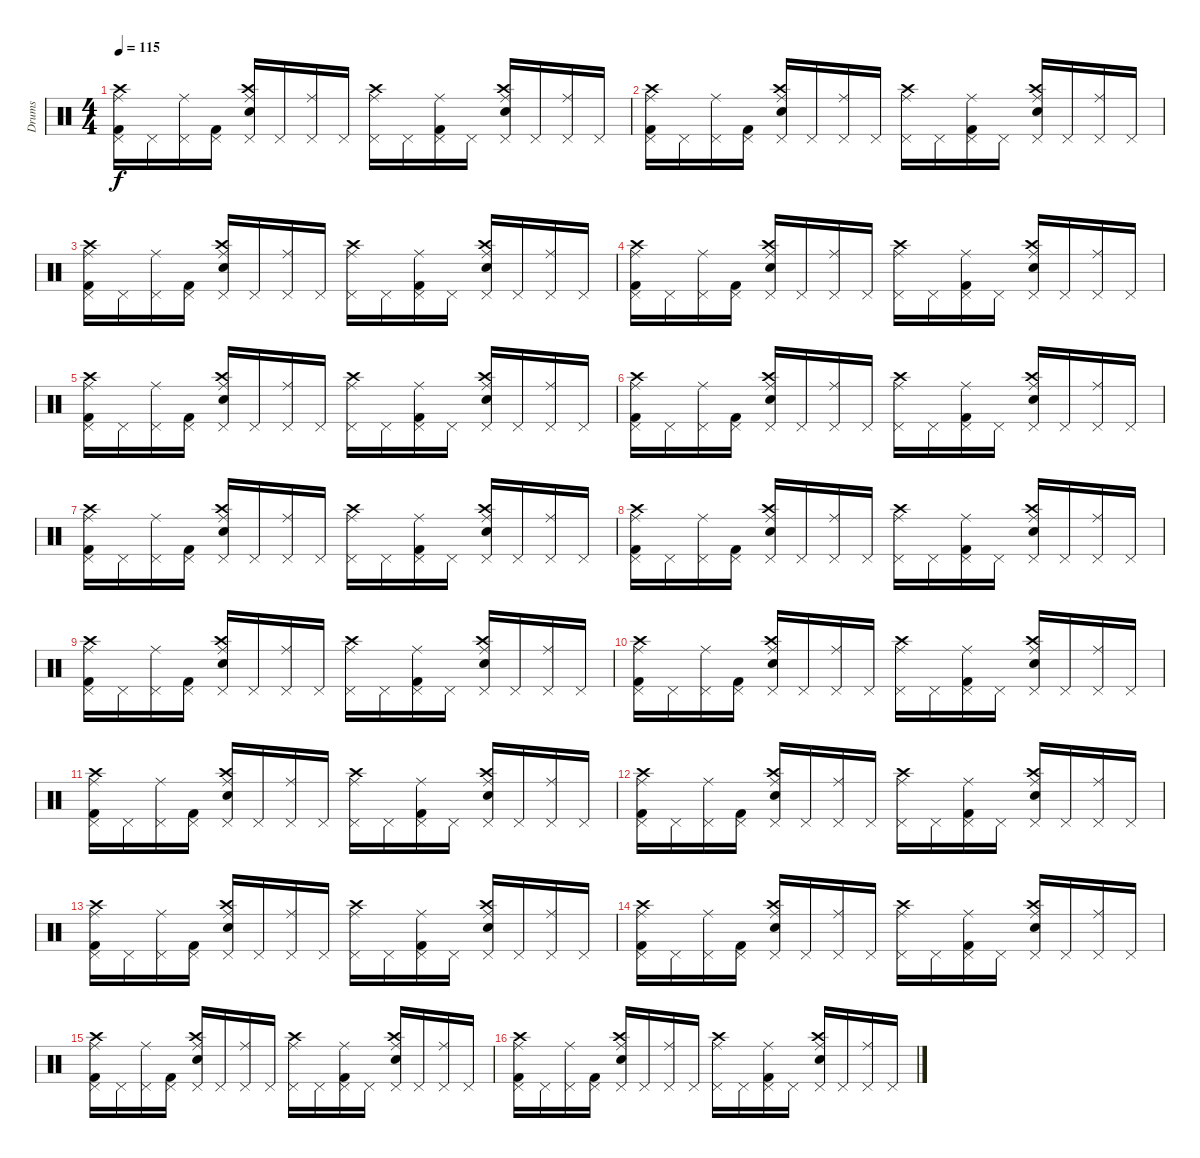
\track ("Drums" "Drums") {instrument percussion}
\staff {score}
\articulation defaults
\ts (4 4)
\tempo 115
\clef neutral
\ks c
("Pedal Hi-Hat (hit)" "Kick (hit) 2" "Ride (middle)" "Crash high (hit)").16{dy f} "Pedal Hi-Hat (hit)".16 ("Pedal Hi-Hat (hit)" "Ride (middle)").16 ("Pedal Hi-Hat (hit)" "Kick (hit) 2").16 ("Pedal Hi-Hat (hit)" "Snare (hit) 2" "Ride (middle)" "Crash high (hit)").16 "Pedal Hi-Hat (hit)".16 ("Pedal Hi-Hat (hit)" "Ride (middle)").16 "Pedal Hi-Hat (hit)".16 ("Pedal Hi-Hat (hit)" "Ride (middle)" "Crash high (hit)").16 "Pedal Hi-Hat (hit)".16 ("Pedal Hi-Hat (hit)" "Kick (hit) 2" "Ride (middle)").16 "Pedal Hi-Hat (hit)".16 ("Pedal Hi-Hat (hit)" "Snare (hit) 2" "Ride (middle)" "Crash high (hit)").16 "Pedal Hi-Hat (hit)".16 ("Pedal Hi-Hat (hit)" "Ride (middle)").16 "Pedal Hi-Hat (hit)".16 |
("Pedal Hi-Hat (hit)" "Kick (hit) 2" "Ride (middle)" "Crash high (hit)").16 "Pedal Hi-Hat (hit)".16 ("Pedal Hi-Hat (hit)" "Ride (middle)").16 ("Pedal Hi-Hat (hit)" "Kick (hit) 2").16 ("Pedal Hi-Hat (hit)" "Snare (hit) 2" "Ride (middle)" "Crash high (hit)").16 "Pedal Hi-Hat (hit)".16 ("Pedal Hi-Hat (hit)" "Ride (middle)").16 "Pedal Hi-Hat (hit)".16 ("Pedal Hi-Hat (hit)" "Ride (middle)" "Crash high (hit)").16 "Pedal Hi-Hat (hit)".16 ("Pedal Hi-Hat (hit)" "Kick (hit) 2" "Ride (middle)").16 "Pedal Hi-Hat (hit)".16 ("Pedal Hi-Hat (hit)" "Snare (hit) 2" "Ride (middle)" "Crash high (hit)").16 "Pedal Hi-Hat (hit)".16 ("Pedal Hi-Hat (hit)" "Ride (middle)").16 "Pedal Hi-Hat (hit)".16 |
("Pedal Hi-Hat (hit)" "Kick (hit) 2" "Ride (middle)" "Crash high (hit)").16 "Pedal Hi-Hat (hit)".16 ("Pedal Hi-Hat (hit)" "Ride (middle)").16 ("Pedal Hi-Hat (hit)" "Kick (hit) 2").16 ("Pedal Hi-Hat (hit)" "Snare (hit) 2" "Ride (middle)" "Crash high (hit)").16 "Pedal Hi-Hat (hit)".16 ("Pedal Hi-Hat (hit)" "Ride (middle)").16 "Pedal Hi-Hat (hit)".16 ("Pedal Hi-Hat (hit)" "Ride (middle)" "Crash high (hit)").16 "Pedal Hi-Hat (hit)".16 ("Pedal Hi-Hat (hit)" "Kick (hit) 2" "Ride (middle)").16 "Pedal Hi-Hat (hit)".16 ("Pedal Hi-Hat (hit)" "Snare (hit) 2" "Ride (middle)" "Crash high (hit)").16 "Pedal Hi-Hat (hit)".16 ("Pedal Hi-Hat (hit)" "Ride (middle)").16 "Pedal Hi-Hat (hit)".16 |
("Pedal Hi-Hat (hit)" "Kick (hit) 2" "Ride (middle)" "Crash high (hit)").16 "Pedal Hi-Hat (hit)".16 ("Pedal Hi-Hat (hit)" "Ride (middle)").16 ("Pedal Hi-Hat (hit)" "Kick (hit) 2").16 ("Pedal Hi-Hat (hit)" "Snare (hit) 2" "Ride (middle)" "Crash high (hit)").16 "Pedal Hi-Hat (hit)".16 ("Pedal Hi-Hat (hit)" "Ride (middle)").16 "Pedal Hi-Hat (hit)".16 ("Pedal Hi-Hat (hit)" "Ride (middle)" "Crash high (hit)").16 "Pedal Hi-Hat (hit)".16 ("Pedal Hi-Hat (hit)" "Kick (hit) 2" "Ride (middle)").16 "Pedal Hi-Hat (hit)".16 ("Pedal Hi-Hat (hit)" "Snare (hit) 2" "Ride (middle)" "Crash high (hit)").16 "Pedal Hi-Hat (hit)".16 ("Pedal Hi-Hat (hit)" "Ride (middle)").16 "Pedal Hi-Hat (hit)".16 |
("Pedal Hi-Hat (hit)" "Kick (hit) 2" "Ride (middle)" "Crash high (hit)").16 "Pedal Hi-Hat (hit)".16 ("Pedal Hi-Hat (hit)" "Ride (middle)").16 ("Pedal Hi-Hat (hit)" "Kick (hit) 2").16 ("Pedal Hi-Hat (hit)" "Snare (hit) 2" "Ride (middle)" "Crash high (hit)").16 "Pedal Hi-Hat (hit)".16 ("Pedal Hi-Hat (hit)" "Ride (middle)").16 "Pedal Hi-Hat (hit)".16 ("Pedal Hi-Hat (hit)" "Ride (middle)" "Crash high (hit)").16 "Pedal Hi-Hat (hit)".16 ("Pedal Hi-Hat (hit)" "Kick (hit) 2" "Ride (middle)").16 "Pedal Hi-Hat (hit)".16 ("Pedal Hi-Hat (hit)" "Snare (hit) 2" "Ride (middle)" "Crash high (hit)").16 "Pedal Hi-Hat (hit)".16 ("Pedal Hi-Hat (hit)" "Ride (middle)").16 "Pedal Hi-Hat (hit)".16 |
("Pedal Hi-Hat (hit)" "Kick (hit) 2" "Ride (middle)" "Crash high (hit)").16 "Pedal Hi-Hat (hit)".16 ("Pedal Hi-Hat (hit)" "Ride (middle)").16 ("Pedal Hi-Hat (hit)" "Kick (hit) 2").16 ("Pedal Hi-Hat (hit)" "Snare (hit) 2" "Ride (middle)" "Crash high (hit)").16 "Pedal Hi-Hat (hit)".16 ("Pedal Hi-Hat (hit)" "Ride (middle)").16 "Pedal Hi-Hat (hit)".16 ("Pedal Hi-Hat (hit)" "Ride (middle)" "Crash high (hit)").16 "Pedal Hi-Hat (hit)".16 ("Pedal Hi-Hat (hit)" "Kick (hit) 2" "Ride (middle)").16 "Pedal Hi-Hat (hit)".16 ("Pedal Hi-Hat (hit)" "Snare (hit) 2" "Ride (middle)" "Crash high (hit)").16 "Pedal Hi-Hat (hit)".16 ("Pedal Hi-Hat (hit)" "Ride (middle)").16 "Pedal Hi-Hat (hit)".16 |
("Pedal Hi-Hat (hit)" "Kick (hit) 2" "Ride (middle)" "Crash high (hit)").16 "Pedal Hi-Hat (hit)".16 ("Pedal Hi-Hat (hit)" "Ride (middle)").16 ("Pedal Hi-Hat (hit)" "Kick (hit) 2").16 ("Pedal Hi-Hat (hit)" "Snare (hit) 2" "Ride (middle)" "Crash high (hit)").16 "Pedal Hi-Hat (hit)".16 ("Pedal Hi-Hat (hit)" "Ride (middle)").16 "Pedal Hi-Hat (hit)".16 ("Pedal Hi-Hat (hit)" "Ride (middle)" "Crash high (hit)").16 "Pedal Hi-Hat (hit)".16 ("Pedal Hi-Hat (hit)" "Kick (hit) 2" "Ride (middle)").16 "Pedal Hi-Hat (hit)".16 ("Pedal Hi-Hat (hit)" "Snare (hit) 2" "Ride (middle)" "Crash high (hit)").16 "Pedal Hi-Hat (hit)".16 ("Pedal Hi-Hat (hit)" "Ride (middle)").16 "Pedal Hi-Hat (hit)".16 |
("Pedal Hi-Hat (hit)" "Kick (hit) 2" "Ride (middle)" "Crash high (hit)").16 "Pedal Hi-Hat (hit)".16 ("Pedal Hi-Hat (hit)" "Ride (middle)").16 ("Pedal Hi-Hat (hit)" "Kick (hit) 2").16 ("Pedal Hi-Hat (hit)" "Snare (hit) 2" "Ride (middle)" "Crash high (hit)").16 "Pedal Hi-Hat (hit)".16 ("Pedal Hi-Hat (hit)" "Ride (middle)").16 "Pedal Hi-Hat (hit)".16 ("Pedal Hi-Hat (hit)" "Ride (middle)" "Crash high (hit)").16 "Pedal Hi-Hat (hit)".16 ("Pedal Hi-Hat (hit)" "Kick (hit) 2" "Ride (middle)").16 "Pedal Hi-Hat (hit)".16 ("Pedal Hi-Hat (hit)" "Snare (hit) 2" "Ride (middle)" "Crash high (hit)").16 "Pedal Hi-Hat (hit)".16 ("Pedal Hi-Hat (hit)" "Ride (middle)").16 "Pedal Hi-Hat (hit)".16 |
("Pedal Hi-Hat (hit)" "Kick (hit) 2" "Ride (middle)" "Crash high (hit)").16 "Pedal Hi-Hat (hit)".16 ("Pedal Hi-Hat (hit)" "Ride (middle)").16 ("Pedal Hi-Hat (hit)" "Kick (hit) 2").16 ("Pedal Hi-Hat (hit)" "Snare (hit) 2" "Ride (middle)" "Crash high (hit)").16 "Pedal Hi-Hat (hit)".16 ("Pedal Hi-Hat (hit)" "Ride (middle)").16 "Pedal Hi-Hat (hit)".16 ("Pedal Hi-Hat (hit)" "Ride (middle)" "Crash high (hit)").16 "Pedal Hi-Hat (hit)".16 ("Pedal Hi-Hat (hit)" "Kick (hit) 2" "Ride (middle)").16 "Pedal Hi-Hat (hit)".16 ("Pedal Hi-Hat (hit)" "Snare (hit) 2" "Ride (middle)" "Crash high (hit)").16 "Pedal Hi-Hat (hit)".16 ("Pedal Hi-Hat (hit)" "Ride (middle)").16 "Pedal Hi-Hat (hit)".16 |
("Pedal Hi-Hat (hit)" "Kick (hit) 2" "Ride (middle)" "Crash high (hit)").16 "Pedal Hi-Hat (hit)".16 ("Pedal Hi-Hat (hit)" "Ride (middle)").16 ("Pedal Hi-Hat (hit)" "Kick (hit) 2").16 ("Pedal Hi-Hat (hit)" "Snare (hit) 2" "Ride (middle)" "Crash high (hit)").16 "Pedal Hi-Hat (hit)".16 ("Pedal Hi-Hat (hit)" "Ride (middle)").16 "Pedal Hi-Hat (hit)".16 ("Pedal Hi-Hat (hit)" "Ride (middle)" "Crash high (hit)").16 "Pedal Hi-Hat (hit)".16 ("Pedal Hi-Hat (hit)" "Kick (hit) 2" "Ride (middle)").16 "Pedal Hi-Hat (hit)".16 ("Pedal Hi-Hat (hit)" "Snare (hit) 2" "Ride (middle)" "Crash high (hit)").16 "Pedal Hi-Hat (hit)".16 ("Pedal Hi-Hat (hit)" "Ride (middle)").16 "Pedal Hi-Hat (hit)".16 |
("Pedal Hi-Hat (hit)" "Kick (hit) 2" "Ride (middle)" "Crash high (hit)").16 "Pedal Hi-Hat (hit)".16 ("Pedal Hi-Hat (hit)" "Ride (middle)").16 ("Pedal Hi-Hat (hit)" "Kick (hit) 2").16 ("Pedal Hi-Hat (hit)" "Snare (hit) 2" "Ride (middle)" "Crash high (hit)").16 "Pedal Hi-Hat (hit)".16 ("Pedal Hi-Hat (hit)" "Ride (middle)").16 "Pedal Hi-Hat (hit)".16 ("Pedal Hi-Hat (hit)" "Ride (middle)" "Crash high (hit)").16 "Pedal Hi-Hat (hit)".16 ("Pedal Hi-Hat (hit)" "Kick (hit) 2" "Ride (middle)").16 "Pedal Hi-Hat (hit)".16 ("Pedal Hi-Hat (hit)" "Snare (hit) 2" "Ride (middle)" "Crash high (hit)").16 "Pedal Hi-Hat (hit)".16 ("Pedal Hi-Hat (hit)" "Ride (middle)").16 "Pedal Hi-Hat (hit)".16 |
("Pedal Hi-Hat (hit)" "Kick (hit) 2" "Ride (middle)" "Crash high (hit)").16 "Pedal Hi-Hat (hit)".16 ("Pedal Hi-Hat (hit)" "Ride (middle)").16 ("Pedal Hi-Hat (hit)" "Kick (hit) 2").16 ("Pedal Hi-Hat (hit)" "Snare (hit) 2" "Ride (middle)" "Crash high (hit)").16 "Pedal Hi-Hat (hit)".16 ("Pedal Hi-Hat (hit)" "Ride (middle)").16 "Pedal Hi-Hat (hit)".16 ("Pedal Hi-Hat (hit)" "Ride (middle)" "Crash high (hit)").16 "Pedal Hi-Hat (hit)".16 ("Pedal Hi-Hat (hit)" "Kick (hit) 2" "Ride (middle)").16 "Pedal Hi-Hat (hit)".16 ("Pedal Hi-Hat (hit)" "Snare (hit) 2" "Ride (middle)" "Crash high (hit)").16 "Pedal Hi-Hat (hit)".16 ("Pedal Hi-Hat (hit)" "Ride (middle)").16 "Pedal Hi-Hat (hit)".16 |
("Pedal Hi-Hat (hit)" "Kick (hit) 2" "Ride (middle)" "Crash high (hit)").16 "Pedal Hi-Hat (hit)".16 ("Pedal Hi-Hat (hit)" "Ride (middle)").16 ("Pedal Hi-Hat (hit)" "Kick (hit) 2").16 ("Pedal Hi-Hat (hit)" "Snare (hit) 2" "Ride (middle)" "Crash high (hit)").16 "Pedal Hi-Hat (hit)".16 ("Pedal Hi-Hat (hit)" "Ride (middle)").16 "Pedal Hi-Hat (hit)".16 ("Pedal Hi-Hat (hit)" "Ride (middle)" "Crash high (hit)").16 "Pedal Hi-Hat (hit)".16 ("Pedal Hi-Hat (hit)" "Kick (hit) 2" "Ride (middle)").16 "Pedal Hi-Hat (hit)".16 ("Pedal Hi-Hat (hit)" "Snare (hit) 2" "Ride (middle)" "Crash high (hit)").16 "Pedal Hi-Hat (hit)".16 ("Pedal Hi-Hat (hit)" "Ride (middle)").16 "Pedal Hi-Hat (hit)".16 |
("Pedal Hi-Hat (hit)" "Kick (hit) 2" "Ride (middle)" "Crash high (hit)").16 "Pedal Hi-Hat (hit)".16 ("Pedal Hi-Hat (hit)" "Ride (middle)").16 ("Pedal Hi-Hat (hit)" "Kick (hit) 2").16 ("Pedal Hi-Hat (hit)" "Snare (hit) 2" "Ride (middle)" "Crash high (hit)").16 "Pedal Hi-Hat (hit)".16 ("Pedal Hi-Hat (hit)" "Ride (middle)").16 "Pedal Hi-Hat (hit)".16 ("Pedal Hi-Hat (hit)" "Ride (middle)" "Crash high (hit)").16 "Pedal Hi-Hat (hit)".16 ("Pedal Hi-Hat (hit)" "Kick (hit) 2" "Ride (middle)").16 "Pedal Hi-Hat (hit)".16 ("Pedal Hi-Hat (hit)" "Snare (hit) 2" "Ride (middle)" "Crash high (hit)").16 "Pedal Hi-Hat (hit)".16 ("Pedal Hi-Hat (hit)" "Ride (middle)").16 "Pedal Hi-Hat (hit)".16 |
("Pedal Hi-Hat (hit)" "Kick (hit) 2" "Ride (middle)" "Crash high (hit)").16 "Pedal Hi-Hat (hit)".16 ("Pedal Hi-Hat (hit)" "Ride (middle)").16 ("Pedal Hi-Hat (hit)" "Kick (hit) 2").16 ("Pedal Hi-Hat (hit)" "Snare (hit) 2" "Ride (middle)" "Crash high (hit)").16 "Pedal Hi-Hat (hit)".16 ("Pedal Hi-Hat (hit)" "Ride (middle)").16 "Pedal Hi-Hat (hit)".16 ("Pedal Hi-Hat (hit)" "Ride (middle)" "Crash high (hit)").16 "Pedal Hi-Hat (hit)".16 ("Pedal Hi-Hat (hit)" "Kick (hit) 2" "Ride (middle)").16 "Pedal Hi-Hat (hit)".16 ("Pedal Hi-Hat (hit)" "Snare (hit) 2" "Ride (middle)" "Crash high (hit)").16 "Pedal Hi-Hat (hit)".16 ("Pedal Hi-Hat (hit)" "Ride (middle)").16 "Pedal Hi-Hat (hit)".16 |
("Pedal Hi-Hat (hit)" "Kick (hit) 2" "Ride (middle)" "Crash high (hit)").16 "Pedal Hi-Hat (hit)".16 ("Pedal Hi-Hat (hit)" "Ride (middle)").16 ("Pedal Hi-Hat (hit)" "Kick (hit) 2").16 ("Pedal Hi-Hat (hit)" "Snare (hit) 2" "Ride (middle)" "Crash high (hit)").16 "Pedal Hi-Hat (hit)".16 ("Pedal Hi-Hat (hit)" "Ride (middle)").16 "Pedal Hi-Hat (hit)".16 ("Pedal Hi-Hat (hit)" "Ride (middle)" "Crash high (hit)").16 "Pedal Hi-Hat (hit)".16 ("Pedal Hi-Hat (hit)" "Kick (hit) 2" "Ride (middle)").16 "Pedal Hi-Hat (hit)".16 ("Pedal Hi-Hat (hit)" "Snare (hit) 2" "Ride (middle)" "Crash high (hit)").16 "Pedal Hi-Hat (hit)".16 ("Pedal Hi-Hat (hit)" "Ride (middle)").16 "Pedal Hi-Hat (hit)".16
